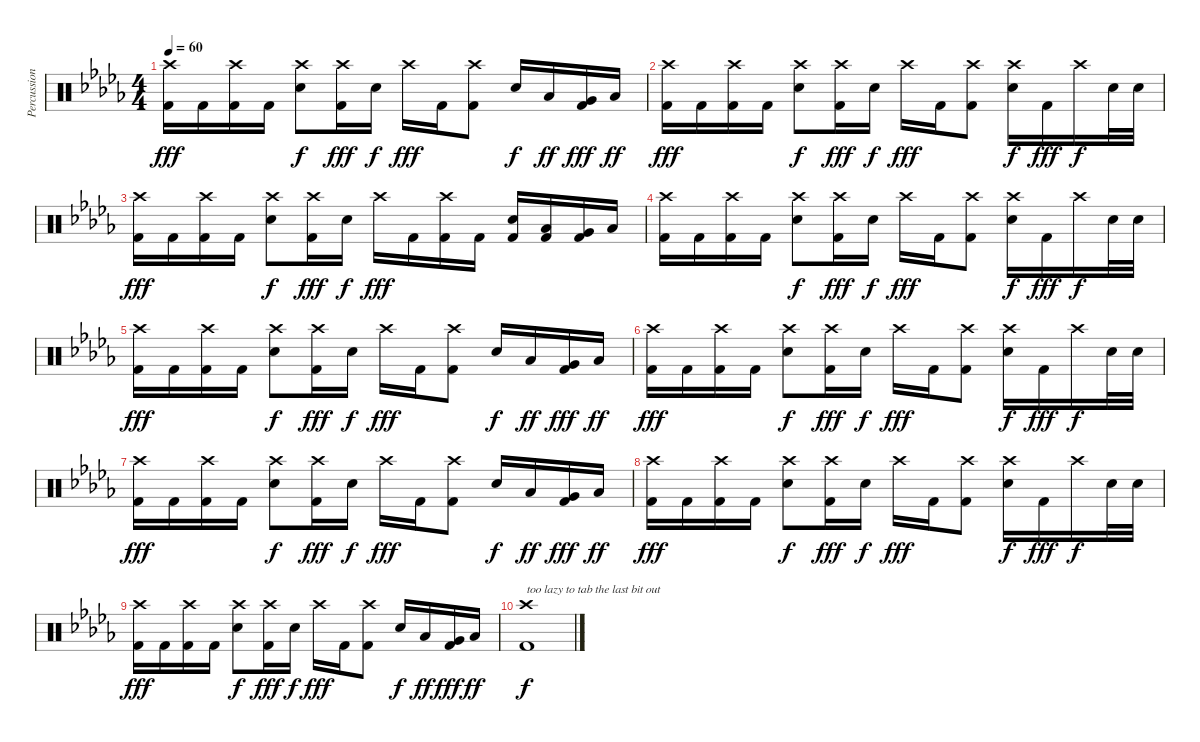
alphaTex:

\track ("Percussion" "Percussion") {instrument percussion}
\staff {score}
\articulation defaults
\ts (4 4)
\tempo 60
\clef neutral
\ks bbminor
("Crash high (hit)" "Kick (hit) 2").16{dy fff} "Kick (hit) 2".16 ("Crash high (hit)" "Kick (hit) 2").16 "Kick (hit) 2".16 ("Crash high (hit)" "Electric Snare (hit)").8{dy f} ("Crash high (hit)" "Kick (hit) 2").16{dy fff} "Electric Snare (hit)".16{dy f} "Crash high (hit)".16{dy fff} "Kick (hit) 2".16 ("Crash high (hit)" "Kick (hit) 2").8 "Electric Snare (hit)".16{dy f} "Low Tom (hit)".16{dy ff} ("Very Low Tom (hit)" "Kick (hit) 2").16{dy fff} "Low Floor Tom (hit)".16{dy ff} |
("Crash high (hit)" "Kick (hit) 2").16{dy fff} "Kick (hit) 2".16 ("Crash high (hit)" "Kick (hit) 2").16 "Kick (hit) 2".16 ("Crash high (hit)" "Electric Snare (hit)").8{dy f} ("Crash high (hit)" "Kick (hit) 2").16{dy fff} "Electric Snare (hit)".16{dy f} "Crash high (hit)".16{dy fff} "Kick (hit) 2".16 ("Crash high (hit)" "Kick (hit) 2").8 ("Crash high (hit)" "Electric Snare (hit)").16{dy f} "Kick (hit) 2".16{dy fff} "Crash high (hit)".16{dy f} "Electric Snare (hit)".32 "Electric Snare (hit)".32 |
("Crash high (hit)" "Kick (hit) 2").16{dy fff} "Kick (hit) 2".16 ("Crash high (hit)" "Kick (hit) 2").16 "Kick (hit) 2".16 ("Crash high (hit)" "Electric Snare (hit)").8{dy f} ("Crash high (hit)" "Kick (hit) 2").16{dy fff} "Electric Snare (hit)".16{dy f} "Crash high (hit)".16{dy fff} "Kick (hit) 2".16 ("Crash high (hit)" "Kick (hit) 2").16 "Kick (hit) 2".16 ("Electric Snare (hit)" "Kick (hit) 2").16 ("Low Tom (hit)" "Kick (hit) 2").16 ("Very Low Tom (hit)" "Kick (hit) 2").16 "Low Floor Tom (hit)".16 |
("Crash high (hit)" "Kick (hit) 2").16 "Kick (hit) 2".16 ("Crash high (hit)" "Kick (hit) 2").16 "Kick (hit) 2".16 ("Crash high (hit)" "Electric Snare (hit)").8{dy f} ("Crash high (hit)" "Kick (hit) 2").16{dy fff} "Electric Snare (hit)".16{dy f} "Crash high (hit)".16{dy fff} "Kick (hit) 2".16 ("Crash high (hit)" "Kick (hit) 2").8 ("Crash high (hit)" "Electric Snare (hit)").16{dy f} "Kick (hit) 2".16{dy fff} "Crash high (hit)".16{dy f} "Electric Snare (hit)".32 "Electric Snare (hit)".32 |
("Crash high (hit)" "Kick (hit) 2").16{dy fff} "Kick (hit) 2".16 ("Crash high (hit)" "Kick (hit) 2").16 "Kick (hit) 2".16 ("Crash high (hit)" "Electric Snare (hit)").8{dy f} ("Crash high (hit)" "Kick (hit) 2").16{dy fff} "Electric Snare (hit)".16{dy f} "Crash high (hit)".16{dy fff} "Kick (hit) 2".16 ("Crash high (hit)" "Kick (hit) 2").8 "Electric Snare (hit)".16{dy f} "Low Tom (hit)".16{dy ff} ("Very Low Tom (hit)" "Kick (hit) 2").16{dy fff} "Low Floor Tom (hit)".16{dy ff} |
("Crash high (hit)" "Kick (hit) 2").16{dy fff} "Kick (hit) 2".16 ("Crash high (hit)" "Kick (hit) 2").16 "Kick (hit) 2".16 ("Crash high (hit)" "Electric Snare (hit)").8{dy f} ("Crash high (hit)" "Kick (hit) 2").16{dy fff} "Electric Snare (hit)".16{dy f} "Crash high (hit)".16{dy fff} "Kick (hit) 2".16 ("Crash high (hit)" "Kick (hit) 2").8 ("Crash high (hit)" "Electric Snare (hit)").16{dy f} "Kick (hit) 2".16{dy fff} "Crash high (hit)".16{dy f} "Electric Snare (hit)".32 "Electric Snare (hit)".32 |
("Crash high (hit)" "Kick (hit) 2").16{dy fff} "Kick (hit) 2".16 ("Crash high (hit)" "Kick (hit) 2").16 "Kick (hit) 2".16 ("Crash high (hit)" "Electric Snare (hit)").8{dy f} ("Crash high (hit)" "Kick (hit) 2").16{dy fff} "Electric Snare (hit)".16{dy f} "Crash high (hit)".16{dy fff} "Kick (hit) 2".16 ("Crash high (hit)" "Kick (hit) 2").8 "Electric Snare (hit)".16{dy f} "Low Tom (hit)".16{dy ff} ("Very Low Tom (hit)" "Kick (hit) 2").16{dy fff} "Low Floor Tom (hit)".16{dy ff} |
("Crash high (hit)" "Kick (hit) 2").16{dy fff} "Kick (hit) 2".16 ("Crash high (hit)" "Kick (hit) 2").16 "Kick (hit) 2".16 ("Crash high (hit)" "Electric Snare (hit)").8{dy f} ("Crash high (hit)" "Kick (hit) 2").16{dy fff} "Electric Snare (hit)".16{dy f} "Crash high (hit)".16{dy fff} "Kick (hit) 2".16 ("Crash high (hit)" "Kick (hit) 2").8 ("Crash high (hit)" "Electric Snare (hit)").16{dy f} "Kick (hit) 2".16{dy fff} "Crash high (hit)".16{dy f} "Electric Snare (hit)".32 "Electric Snare (hit)".32 |
("Crash high (hit)" "Kick (hit) 2").16{dy fff} "Kick (hit) 2".16 ("Crash high (hit)" "Kick (hit) 2").16 "Kick (hit) 2".16 ("Crash high (hit)" "Electric Snare (hit)").8{dy f} ("Crash high (hit)" "Kick (hit) 2").16{dy fff} "Electric Snare (hit)".16{dy f} "Crash high (hit)".16{dy fff} "Kick (hit) 2".16 ("Crash high (hit)" "Kick (hit) 2").8 "Electric Snare (hit)".16{dy f} "Low Tom (hit)".16{dy ff} ("Very Low Tom (hit)" "Kick (hit) 2").16{dy fff} "Low Floor Tom (hit)".16{dy ff} |
("Crash high (hit)" "Kick (hit) 2").1{txt "too lazy to tab the last bit out" dy f}
